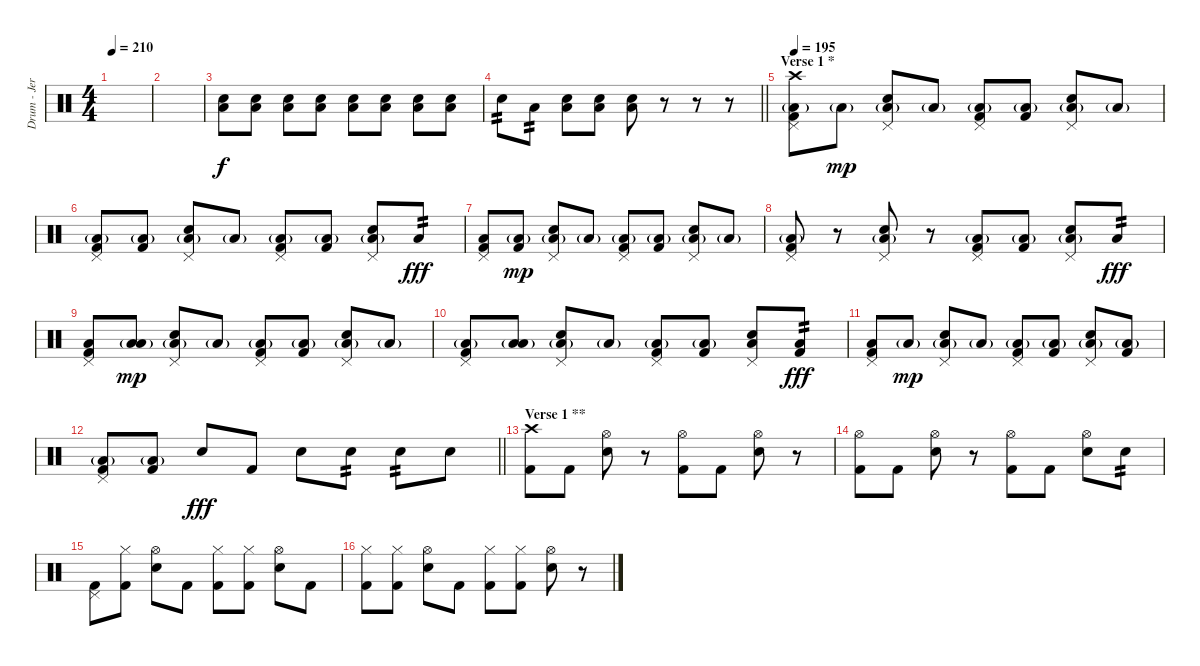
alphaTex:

\track ("Drum - Jerinx" "Drum - Jer") {instrument percussion}
\staff {score}
\articulation defaults
\ts (4 4)
\tempo 210
\clef neutral
\ks c
|
|
("Snare (hit) 2" "Low Floor Tom (hit)").8{volume 16} ("Snare (hit) 2" "Low Floor Tom (hit)").8 ("Snare (hit) 2" "Low Floor Tom (hit)").8 ("Snare (hit) 2" "Low Floor Tom (hit)").8 ("Snare (hit) 2" "Low Floor Tom (hit)").8 ("Snare (hit) 2" "Low Floor Tom (hit)").8 ("Snare (hit) 2" "Low Floor Tom (hit)").8 ("Snare (hit) 2" "Low Floor Tom (hit)").8 |
\barLineRight lightlight "Snare (hit) 2".8{tp 2} "Low Tom (hit)".8{tp 2}
("Snare (hit) 2" "Low Floor Tom (hit)").8 ("Snare (hit) 2" "Low Floor Tom (hit)").8 ("Snare (hit) 2" "Low Floor Tom (hit)").8 r.8 r.8 r.8 |
\section ("" "Verse 1 *")
\tempo 195
("Pedal Hi-Hat (hit)" "Kick (hit) 2" "Low Floor Tom (hit)"{g} "Crash high (hit)").8 "Low Floor Tom (hit)"{g}.8{dy mp} ("Pedal Hi-Hat (hit)" "Snare (hit) 2" "Low Floor Tom (hit)"{g}).8 "Low Floor Tom (hit)"{g}.8 ("Pedal Hi-Hat (hit)" "Kick (hit) 2" "Low Floor Tom (hit)"{g}).8 ("Kick (hit) 2" "Low Floor Tom (hit)"{g}).8 ("Pedal Hi-Hat (hit)" "Snare (hit) 2" "Low Floor Tom (hit)"{g}).8 "Low Floor Tom (hit)"{g}.8 |
("Pedal Hi-Hat (hit)" "Kick (hit) 2" "Low Floor Tom (hit)"{g}).8 ("Kick (hit) 2" "Low Floor Tom (hit)"{g}).8 ("Pedal Hi-Hat (hit)" "Snare (hit) 2" "Low Floor Tom (hit)"{g}).8 "Low Floor Tom (hit)"{g}.8 ("Pedal Hi-Hat (hit)" "Kick (hit) 2" "Low Floor Tom (hit)"{g}).8 ("Kick (hit) 2" "Low Floor Tom (hit)"{g}).8 ("Pedal Hi-Hat (hit)" "Snare (hit) 2" "Low Floor Tom (hit)"{g}).8 "Low Floor Tom (hit)".8{tp 2 dy fff} |
("Pedal Hi-Hat (hit)" "Kick (hit) 2" "Low Floor Tom (hit)").8 ("Kick (hit) 2" "Low Floor Tom (hit)"{g}).8{dy mp} ("Pedal Hi-Hat (hit)" "Snare (hit) 2" "Low Floor Tom (hit)"{g}).8 "Low Floor Tom (hit)"{g}.8 ("Pedal Hi-Hat (hit)" "Kick (hit) 2" "Low Floor Tom (hit)"{g}).8 ("Kick (hit) 2" "Low Floor Tom (hit)"{g}).8 ("Pedal Hi-Hat (hit)" "Snare (hit) 2" "Low Floor Tom (hit)"{g}).8 "Low Floor Tom (hit)"{g}.8 |
("Pedal Hi-Hat (hit)" "Kick (hit) 2" "Low Floor Tom (hit)"{g}).8 r.8 ("Pedal Hi-Hat (hit)" "Snare (hit) 2" "Low Floor Tom (hit)"{g}).8 r.8 ("Pedal Hi-Hat (hit)" "Kick (hit) 2" "Low Floor Tom (hit)"{g}).8 ("Kick (hit) 2" "Low Floor Tom (hit)"{g}).8 ("Pedal Hi-Hat (hit)" "Snare (hit) 2" "Low Floor Tom (hit)"{g}).8 "Low Floor Tom (hit)".8{tp 2 dy fff} |
("Pedal Hi-Hat (hit)" "Kick (hit) 2" "Low Floor Tom (hit)").8 ("Low Floor Tom (hit)" "Low Floor Tom (hit)"{g}).8{dy mp} ("Pedal Hi-Hat (hit)" "Snare (hit) 2" "Low Floor Tom (hit)"{g}).8 "Low Floor Tom (hit)"{g}.8 ("Pedal Hi-Hat (hit)" "Kick (hit) 2" "Low Floor Tom (hit)"{g}).8 ("Kick (hit) 2" "Low Floor Tom (hit)"{g}).8 ("Pedal Hi-Hat (hit)" "Snare (hit) 2" "Low Floor Tom (hit)"{g}).8 "Low Floor Tom (hit)"{g}.8 |
("Pedal Hi-Hat (hit)" "Kick (hit) 2" "Low Floor Tom (hit)"{g}).8 ("Low Floor Tom (hit)" "Low Floor Tom (hit)"{g}).8 ("Pedal Hi-Hat (hit)" "Snare (hit) 2" "Low Floor Tom (hit)"{g}).8 "Low Floor Tom (hit)"{g}.8 ("Pedal Hi-Hat (hit)" "Kick (hit) 2" "Low Floor Tom (hit)"{g}).8 ("Kick (hit) 2" "Low Floor Tom (hit)"{g}).8 ("Pedal Hi-Hat (hit)" "Snare (hit) 2" "Low Floor Tom (hit)").8 ("Kick (hit) 2" "Low Floor Tom (hit)").8{tp 2 dy fff} |
("Pedal Hi-Hat (hit)" "Kick (hit) 2" "Low Floor Tom (hit)").8 "Low Floor Tom (hit)"{g}.8{dy mp} ("Pedal Hi-Hat (hit)" "Snare (hit) 2" "Low Floor Tom (hit)"{g}).8 "Low Floor Tom (hit)"{g}.8 ("Pedal Hi-Hat (hit)" "Kick (hit) 2" "Low Floor Tom (hit)"{g}).8 ("Kick (hit) 2" "Low Floor Tom (hit)"{g}).8 ("Pedal Hi-Hat (hit)" "Snare (hit) 2" "Low Floor Tom (hit)"{g}).8 ("Kick (hit) 2" "Low Floor Tom (hit)"{g}).8 |
\barLineRight lightlight
("Pedal Hi-Hat (hit)" "Kick (hit) 2" "Low Floor Tom (hit)"{g}).8 ("Kick (hit) 2" "Low Floor Tom (hit)"{g}).8 "Snare (hit) 2".8{dy fff} "Kick (hit) 2".8 "Snare (hit) 2".8 "Snare (hit) 2".8{tp 2} "Snare (hit) 2".8{tp 2} "Snare (hit) 2".8 |
\section ("" "Verse 1 **")
("Kick (hit) 2" "Crash high (hit)").8 "Kick (hit) 2".8 ("Hi-Hat (open)" "Snare (hit) 2").8 r.8 ("Hi-Hat (open)" "Kick (hit) 2").8 "Kick (hit) 2".8 ("Hi-Hat (open)" "Snare (hit) 2").8 r.8 |
("Hi-Hat (open)" "Kick (hit) 2").8 "Kick (hit) 2".8 ("Hi-Hat (open)" "Snare (hit) 2").8 r.8 ("Hi-Hat (open)" "Kick (hit) 2").8 "Kick (hit) 2".8 ("Hi-Hat (open)" "Snare (hit) 2").8 "Snare (hit) 2".8{tp 2} |
("Pedal Hi-Hat (hit)" "Kick (hit) 2").8 ("Hi-Hat (closed)" "Kick (hit) 2").8 ("Hi-Hat (open)" "Snare (hit) 2").8 "Kick (hit) 2".8 ("Hi-Hat (closed)" "Kick (hit) 2").8 ("Hi-Hat (closed)" "Kick (hit) 2").8 ("Hi-Hat (open)" "Snare (hit) 2").8 "Kick (hit) 2".8 |
("Hi-Hat (closed)" "Kick (hit) 2").8 ("Hi-Hat (closed)" "Kick (hit) 2").8 ("Hi-Hat (open)" "Snare (hit) 2").8 "Kick (hit) 2".8 ("Hi-Hat (closed)" "Kick (hit) 2").8 ("Hi-Hat (closed)" "Kick (hit) 2").8 ("Hi-Hat (open)" "Snare (hit) 2").8 r.8
